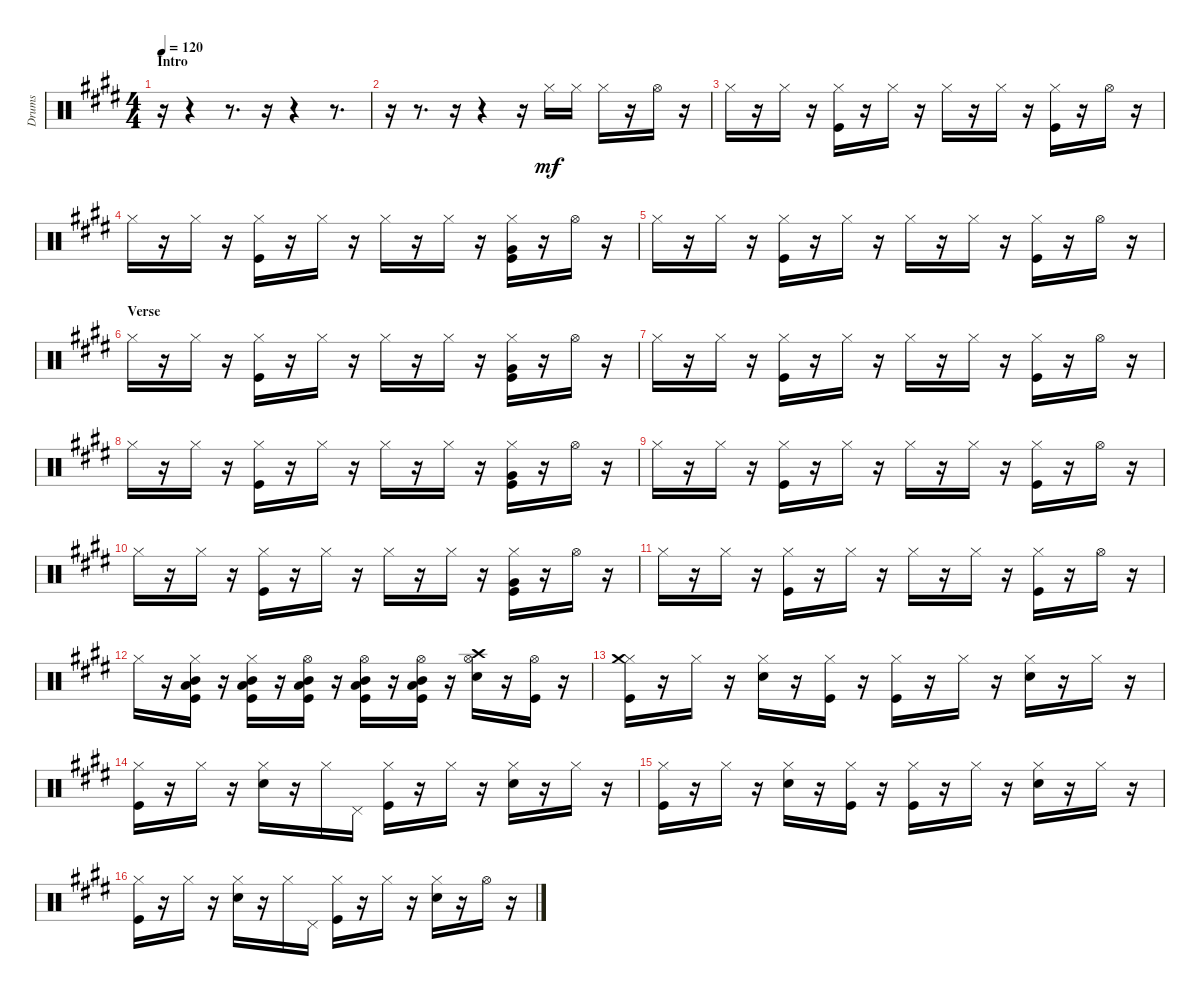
\track ("Drums" "Drums") {instrument percussion}
\staff {score}
\articulation defaults
\ts (4 4)
\section ("" "Intro")
\tempo 120
\clef neutral
\ks c#minor
r.16{dy mf} r.4 r.8{d} r.16 r.4 r.8{d} |
r.16 r.8{d} r.16 r.4 r.16 "Hi-Hat (closed)".16 "Hi-Hat (closed)".16 "Hi-Hat (closed)".16 r.16 "Hi-Hat (open)".16 r.16 |
"Hi-Hat (closed)".16 r.16 "Hi-Hat (closed)".16 r.16 ("Kick (hit)" "Hi-Hat (closed)").16 r.16 "Hi-Hat (closed)".16 r.16 "Hi-Hat (closed)".16 r.16 "Hi-Hat (closed)".16 r.16 ("Kick (hit)" "Hi-Hat (closed)").16 r.16 "Hi-Hat (open)".16 r.16 |
"Hi-Hat (closed)".16 r.16 "Hi-Hat (closed)".16 r.16 ("Kick (hit)" "Hi-Hat (closed)").16 r.16 "Hi-Hat (closed)".16 r.16 "Hi-Hat (closed)".16 r.16 "Hi-Hat (closed)".16 r.16 ("Kick (hit)" "Hi-Hat (closed)" "Very Low Tom (hit)").16 r.16 "Hi-Hat (open)".16 r.16 |
"Hi-Hat (closed)".16 r.16 "Hi-Hat (closed)".16 r.16 ("Kick (hit)" "Hi-Hat (closed)").16 r.16 "Hi-Hat (closed)".16 r.16 "Hi-Hat (closed)".16 r.16 "Hi-Hat (closed)".16 r.16 ("Kick (hit)" "Hi-Hat (closed)").16 r.16 "Hi-Hat (open)".16 r.16 |
\section ("" "Verse")
"Hi-Hat (closed)".16 r.16 "Hi-Hat (closed)".16 r.16 ("Kick (hit)" "Hi-Hat (closed)").16 r.16 "Hi-Hat (closed)".16 r.16 "Hi-Hat (closed)".16 r.16 "Hi-Hat (closed)".16 r.16 ("Kick (hit)" "Hi-Hat (closed)" "Very Low Tom (hit)").16 r.16 "Hi-Hat (open)".16 r.16 |
"Hi-Hat (closed)".16 r.16 "Hi-Hat (closed)".16 r.16 ("Kick (hit)" "Hi-Hat (closed)").16 r.16 "Hi-Hat (closed)".16 r.16 "Hi-Hat (closed)".16 r.16 "Hi-Hat (closed)".16 r.16 ("Kick (hit)" "Hi-Hat (closed)").16 r.16 "Hi-Hat (open)".16 r.16 |
"Hi-Hat (closed)".16 r.16 "Hi-Hat (closed)".16 r.16 ("Kick (hit)" "Hi-Hat (closed)").16 r.16 "Hi-Hat (closed)".16 r.16 "Hi-Hat (closed)".16 r.16 "Hi-Hat (closed)".16 r.16 ("Kick (hit)" "Hi-Hat (closed)" "Very Low Tom (hit)").16 r.16 "Hi-Hat (open)".16 r.16 |
"Hi-Hat (closed)".16 r.16 "Hi-Hat (closed)".16 r.16 ("Kick (hit)" "Hi-Hat (closed)").16 r.16 "Hi-Hat (closed)".16 r.16 "Hi-Hat (closed)".16 r.16 "Hi-Hat (closed)".16 r.16 ("Kick (hit)" "Hi-Hat (closed)").16 r.16 "Hi-Hat (open)".16 r.16 |
"Hi-Hat (closed)".16 r.16 "Hi-Hat (closed)".16 r.16 ("Kick (hit)" "Hi-Hat (closed)").16 r.16 "Hi-Hat (closed)".16 r.16 "Hi-Hat (closed)".16 r.16 "Hi-Hat (closed)".16 r.16 ("Kick (hit)" "Hi-Hat (closed)" "Very Low Tom (hit)").16 r.16 "Hi-Hat (open)".16 r.16 |
"Hi-Hat (closed)".16 r.16 "Hi-Hat (closed)".16 r.16 ("Kick (hit)" "Hi-Hat (closed)").16 r.16 "Hi-Hat (closed)".16 r.16 "Hi-Hat (closed)".16 r.16 "Hi-Hat (closed)".16 r.16 ("Kick (hit)" "Hi-Hat (closed)").16 r.16 "Hi-Hat (open)".16 r.16 |
"Hi-Hat (closed)".16 r.16 ("Kick (hit)" "Hi-Hat (closed)" "Low Tom (hit)" "Mid Tom (hit)").16 r.16 ("Kick (hit)" "Hi-Hat (closed)" "Low Tom (hit)" "Mid Tom (hit)").16 r.16 ("Kick (hit)" "Low Tom (hit)" "Hi-Hat (open)" "Mid Tom (hit)").16 r.16 ("Kick (hit)" "Low Tom (hit)" "Hi-Hat (open)" "Mid Tom (hit)").16 r.16 ("Kick (hit)" "Low Tom (hit)" "Hi-Hat (open)" "Mid Tom (hit)").16 r.16 ("Snare (hit) 2" "Hi-Hat (open)" "Crash high (hit)").16 r.16 ("Kick (hit)" "Hi-Hat (open)").16 r.16 |
("Kick (hit)" "Hi-Hat (closed)" "Crash medium (hit)").16 r.16 "Hi-Hat (closed)".16 r.16 ("Snare (hit) 2" "Hi-Hat (closed)").16 r.16 ("Kick (hit)" "Hi-Hat (closed)").16 r.16 ("Kick (hit)" "Hi-Hat (closed)").16 r.16 "Hi-Hat (closed)".16 r.16 ("Snare (hit) 2" "Hi-Hat (closed)").16 r.16 "Hi-Hat (closed)".16 r.16 |
("Kick (hit)" "Hi-Hat (closed)").16 r.16 "Hi-Hat (closed)".16 r.16 ("Snare (hit) 2" "Hi-Hat (closed)").16 r.16 "Hi-Hat (closed)".16 "Pedal Hi-Hat (hit)".16 ("Kick (hit)" "Hi-Hat (closed)").16 r.16 "Hi-Hat (closed)".16 r.16 ("Snare (hit) 2" "Hi-Hat (closed)").16 r.16 "Hi-Hat (closed)".16 r.16 |
("Kick (hit)" "Hi-Hat (closed)").16 r.16 "Hi-Hat (closed)".16 r.16 ("Snare (hit) 2" "Hi-Hat (closed)").16 r.16 ("Kick (hit)" "Hi-Hat (closed)").16 r.16 ("Kick (hit)" "Hi-Hat (closed)").16 r.16 "Hi-Hat (closed)".16 r.16 ("Snare (hit) 2" "Hi-Hat (closed)").16 r.16 "Hi-Hat (closed)".16 r.16 |
("Kick (hit)" "Hi-Hat (closed)").16 r.16 "Hi-Hat (closed)".16 r.16 ("Snare (hit) 2" "Hi-Hat (closed)").16 r.16 "Hi-Hat (closed)".16 "Pedal Hi-Hat (hit)".16 ("Kick (hit)" "Hi-Hat (closed)").16 r.16 "Hi-Hat (closed)".16 r.16 ("Snare (hit) 2" "Hi-Hat (closed)").16 r.16 "Hi-Hat (open)".16 r.16
